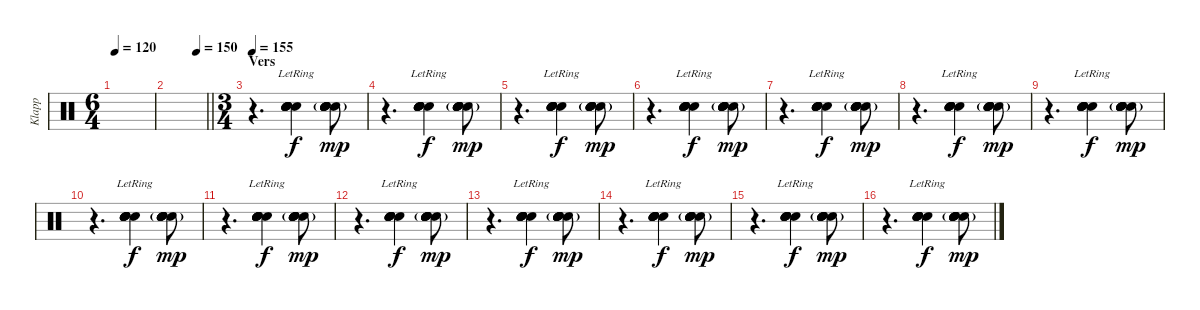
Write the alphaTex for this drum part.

\track ("Klapp" "Klapp") {instrument percussion}
\staff {score}
\articulation defaults
\ts (6 4)
\tempo 120
\clef neutral
\ks c
|
\tempo (150 0.75)
\barLineRight lightlight
|
\ts (3 4)
\section ("" "Vers")
\tempo 155
r.4{d} ("Hand Clap (hit)"{lr} "Hand Clap (hit)"{lr} "Hand Clap (hit)"{lr} "Hand Clap (hit)"{lr} "Hand Clap (hit)"{lr} "Hand Clap (hit)"{lr}).4 ("Hand Clap (hit)"{g} "Hand Clap (hit)"{g} "Hand Clap (hit)"{g} "Hand Clap (hit)"{g} "Hand Clap (hit)"{g} "Hand Clap (hit)"{g}).8{dy mp} |
r.4{d} ("Hand Clap (hit)"{lr} "Hand Clap (hit)"{lr} "Hand Clap (hit)"{lr} "Hand Clap (hit)"{lr} "Hand Clap (hit)"{lr} "Hand Clap (hit)"{lr}).4{dy f} ("Hand Clap (hit)"{g} "Hand Clap (hit)"{g} "Hand Clap (hit)"{g} "Hand Clap (hit)"{g} "Hand Clap (hit)"{g} "Hand Clap (hit)"{g}).8{dy mp} |
r.4{d} ("Hand Clap (hit)"{lr} "Hand Clap (hit)"{lr} "Hand Clap (hit)"{lr} "Hand Clap (hit)"{lr} "Hand Clap (hit)"{lr} "Hand Clap (hit)"{lr}).4{dy f} ("Hand Clap (hit)"{g} "Hand Clap (hit)"{g} "Hand Clap (hit)"{g} "Hand Clap (hit)"{g} "Hand Clap (hit)"{g} "Hand Clap (hit)"{g}).8{dy mp} |
r.4{d} ("Hand Clap (hit)"{lr} "Hand Clap (hit)"{lr} "Hand Clap (hit)"{lr} "Hand Clap (hit)"{lr} "Hand Clap (hit)"{lr} "Hand Clap (hit)"{lr}).4{dy f} ("Hand Clap (hit)"{g} "Hand Clap (hit)"{g} "Hand Clap (hit)"{g} "Hand Clap (hit)"{g} "Hand Clap (hit)"{g} "Hand Clap (hit)"{g}).8{dy mp} |
r.4{d} ("Hand Clap (hit)"{lr} "Hand Clap (hit)"{lr} "Hand Clap (hit)"{lr} "Hand Clap (hit)"{lr} "Hand Clap (hit)"{lr} "Hand Clap (hit)"{lr}).4{dy f} ("Hand Clap (hit)"{g} "Hand Clap (hit)"{g} "Hand Clap (hit)"{g} "Hand Clap (hit)"{g} "Hand Clap (hit)"{g} "Hand Clap (hit)"{g}).8{dy mp} |
r.4{d} ("Hand Clap (hit)"{lr} "Hand Clap (hit)"{lr} "Hand Clap (hit)"{lr} "Hand Clap (hit)"{lr} "Hand Clap (hit)"{lr} "Hand Clap (hit)"{lr}).4{dy f} ("Hand Clap (hit)"{g} "Hand Clap (hit)"{g} "Hand Clap (hit)"{g} "Hand Clap (hit)"{g} "Hand Clap (hit)"{g} "Hand Clap (hit)"{g}).8{dy mp} |
r.4{d} ("Hand Clap (hit)"{lr} "Hand Clap (hit)"{lr} "Hand Clap (hit)"{lr} "Hand Clap (hit)"{lr} "Hand Clap (hit)"{lr} "Hand Clap (hit)"{lr}).4{dy f} ("Hand Clap (hit)"{g} "Hand Clap (hit)"{g} "Hand Clap (hit)"{g} "Hand Clap (hit)"{g} "Hand Clap (hit)"{g} "Hand Clap (hit)"{g}).8{dy mp} |
r.4{d} ("Hand Clap (hit)"{lr} "Hand Clap (hit)"{lr} "Hand Clap (hit)"{lr} "Hand Clap (hit)"{lr} "Hand Clap (hit)"{lr} "Hand Clap (hit)"{lr}).4{dy f} ("Hand Clap (hit)"{g} "Hand Clap (hit)"{g} "Hand Clap (hit)"{g} "Hand Clap (hit)"{g} "Hand Clap (hit)"{g} "Hand Clap (hit)"{g}).8{dy mp} |
r.4{d} ("Hand Clap (hit)"{lr} "Hand Clap (hit)"{lr} "Hand Clap (hit)"{lr} "Hand Clap (hit)"{lr} "Hand Clap (hit)"{lr} "Hand Clap (hit)"{lr}).4{dy f} ("Hand Clap (hit)"{g} "Hand Clap (hit)"{g} "Hand Clap (hit)"{g} "Hand Clap (hit)"{g} "Hand Clap (hit)"{g} "Hand Clap (hit)"{g}).8{dy mp} |
r.4{d} ("Hand Clap (hit)"{lr} "Hand Clap (hit)"{lr} "Hand Clap (hit)"{lr} "Hand Clap (hit)"{lr} "Hand Clap (hit)"{lr} "Hand Clap (hit)"{lr}).4{dy f} ("Hand Clap (hit)"{g} "Hand Clap (hit)"{g} "Hand Clap (hit)"{g} "Hand Clap (hit)"{g} "Hand Clap (hit)"{g} "Hand Clap (hit)"{g}).8{dy mp} |
r.4{d} ("Hand Clap (hit)"{lr} "Hand Clap (hit)"{lr} "Hand Clap (hit)"{lr} "Hand Clap (hit)"{lr} "Hand Clap (hit)"{lr} "Hand Clap (hit)"{lr}).4{dy f} ("Hand Clap (hit)"{g} "Hand Clap (hit)"{g} "Hand Clap (hit)"{g} "Hand Clap (hit)"{g} "Hand Clap (hit)"{g} "Hand Clap (hit)"{g}).8{dy mp} |
r.4{d} ("Hand Clap (hit)"{lr} "Hand Clap (hit)"{lr} "Hand Clap (hit)"{lr} "Hand Clap (hit)"{lr} "Hand Clap (hit)"{lr} "Hand Clap (hit)"{lr}).4{dy f} ("Hand Clap (hit)"{g} "Hand Clap (hit)"{g} "Hand Clap (hit)"{g} "Hand Clap (hit)"{g} "Hand Clap (hit)"{g} "Hand Clap (hit)"{g}).8{dy mp} |
r.4{d} ("Hand Clap (hit)"{lr} "Hand Clap (hit)"{lr} "Hand Clap (hit)"{lr} "Hand Clap (hit)"{lr} "Hand Clap (hit)"{lr} "Hand Clap (hit)"{lr}).4{dy f} ("Hand Clap (hit)"{g} "Hand Clap (hit)"{g} "Hand Clap (hit)"{g} "Hand Clap (hit)"{g} "Hand Clap (hit)"{g} "Hand Clap (hit)"{g}).8{dy mp} |
r.4{d} ("Hand Clap (hit)"{lr} "Hand Clap (hit)"{lr} "Hand Clap (hit)"{lr} "Hand Clap (hit)"{lr} "Hand Clap (hit)"{lr} "Hand Clap (hit)"{lr}).4{dy f} ("Hand Clap (hit)"{g} "Hand Clap (hit)"{g} "Hand Clap (hit)"{g} "Hand Clap (hit)"{g} "Hand Clap (hit)"{g} "Hand Clap (hit)"{g}).8{dy mp}
